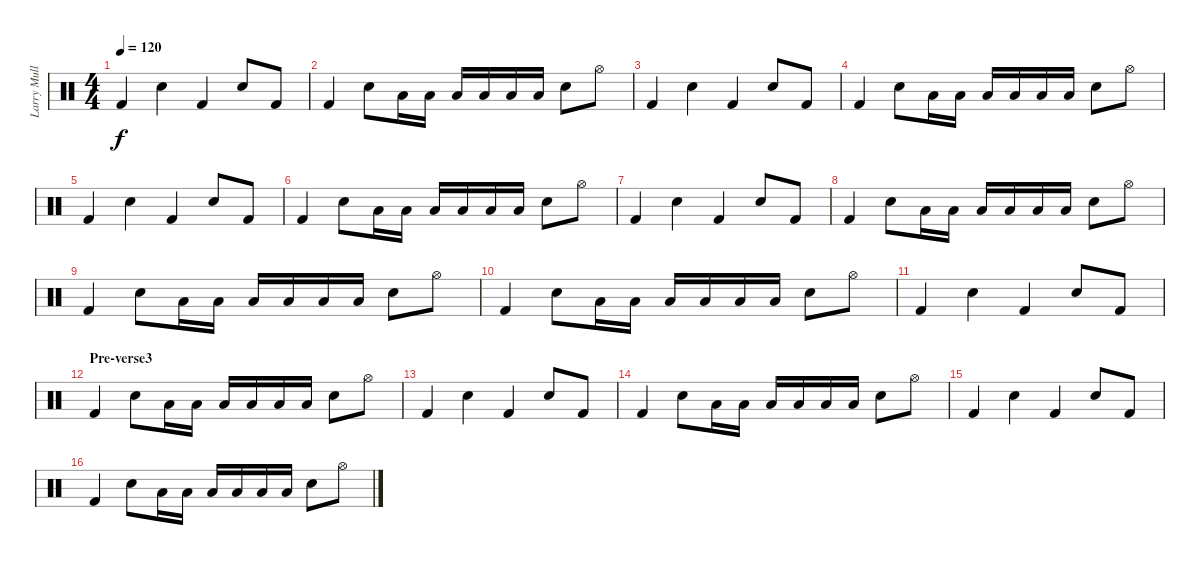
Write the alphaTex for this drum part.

\track ("Larry Mullen Jr" "Larry Mull") {instrument percussion}
\staff {score}
\articulation defaults
\ts (4 4)
\tempo 120
\clef neutral
\ks c "Kick (hit) 2".4{dy f} "Snare (hit) 2".4 "Kick (hit) 2".4 "Snare (hit) 2".8 "Kick (hit) 2".8
|
"Kick (hit) 2".4 "Snare (hit) 2".8 "Low Floor Tom (hit)".16 "Low Floor Tom (hit)".16 "Low Floor Tom (hit)".16 "Low Floor Tom (hit)".16 "Low Floor Tom (hit)".16 "Low Floor Tom (hit)".16 "Snare (hit) 2".8 "Hi-Hat (open)".8 |
"Kick (hit) 2".4 "Snare (hit) 2".4 "Kick (hit) 2".4 "Snare (hit) 2".8 "Kick (hit) 2".8 |
"Kick (hit) 2".4 "Snare (hit) 2".8 "Low Floor Tom (hit)".16 "Low Floor Tom (hit)".16 "Low Floor Tom (hit)".16 "Low Floor Tom (hit)".16 "Low Floor Tom (hit)".16 "Low Floor Tom (hit)".16 "Snare (hit) 2".8 "Hi-Hat (open)".8 |
"Kick (hit) 2".4 "Snare (hit) 2".4 "Kick (hit) 2".4 "Snare (hit) 2".8 "Kick (hit) 2".8 |
"Kick (hit) 2".4 "Snare (hit) 2".8 "Low Floor Tom (hit)".16 "Low Floor Tom (hit)".16 "Low Floor Tom (hit)".16 "Low Floor Tom (hit)".16 "Low Floor Tom (hit)".16 "Low Floor Tom (hit)".16 "Snare (hit) 2".8 "Hi-Hat (open)".8 |
"Kick (hit) 2".4 "Snare (hit) 2".4 "Kick (hit) 2".4 "Snare (hit) 2".8 "Kick (hit) 2".8 |
"Kick (hit) 2".4 "Snare (hit) 2".8 "Low Floor Tom (hit)".16 "Low Floor Tom (hit)".16 "Low Floor Tom (hit)".16 "Low Floor Tom (hit)".16 "Low Floor Tom (hit)".16 "Low Floor Tom (hit)".16 "Snare (hit) 2".8 "Hi-Hat (open)".8 |
"Kick (hit) 2".4 "Snare (hit) 2".8 "Low Floor Tom (hit)".16 "Low Floor Tom (hit)".16 "Low Floor Tom (hit)".16 "Low Floor Tom (hit)".16 "Low Floor Tom (hit)".16 "Low Floor Tom (hit)".16 "Snare (hit) 2".8 "Hi-Hat (open)".8 |
"Kick (hit) 2".4 "Snare (hit) 2".8 "Low Floor Tom (hit)".16 "Low Floor Tom (hit)".16 "Low Floor Tom (hit)".16 "Low Floor Tom (hit)".16 "Low Floor Tom (hit)".16 "Low Floor Tom (hit)".16 "Snare (hit) 2".8 "Hi-Hat (open)".8 |
"Kick (hit) 2".4 "Snare (hit) 2".4 "Kick (hit) 2".4 "Snare (hit) 2".8 "Kick (hit) 2".8 |
\section ("" "Pre-verse3")
"Kick (hit) 2".4 "Snare (hit) 2".8 "Low Floor Tom (hit)".16 "Low Floor Tom (hit)".16 "Low Floor Tom (hit)".16 "Low Floor Tom (hit)".16 "Low Floor Tom (hit)".16 "Low Floor Tom (hit)".16 "Snare (hit) 2".8 "Hi-Hat (open)".8 |
"Kick (hit) 2".4 "Snare (hit) 2".4 "Kick (hit) 2".4 "Snare (hit) 2".8 "Kick (hit) 2".8 |
"Kick (hit) 2".4 "Snare (hit) 2".8 "Low Floor Tom (hit)".16 "Low Floor Tom (hit)".16 "Low Floor Tom (hit)".16 "Low Floor Tom (hit)".16 "Low Floor Tom (hit)".16 "Low Floor Tom (hit)".16 "Snare (hit) 2".8 "Hi-Hat (open)".8 |
"Kick (hit) 2".4 "Snare (hit) 2".4 "Kick (hit) 2".4 "Snare (hit) 2".8 "Kick (hit) 2".8 |
"Kick (hit) 2".4 "Snare (hit) 2".8 "Low Floor Tom (hit)".16 "Low Floor Tom (hit)".16 "Low Floor Tom (hit)".16 "Low Floor Tom (hit)".16 "Low Floor Tom (hit)".16 "Low Floor Tom (hit)".16 "Snare (hit) 2".8 "Hi-Hat (open)".8
